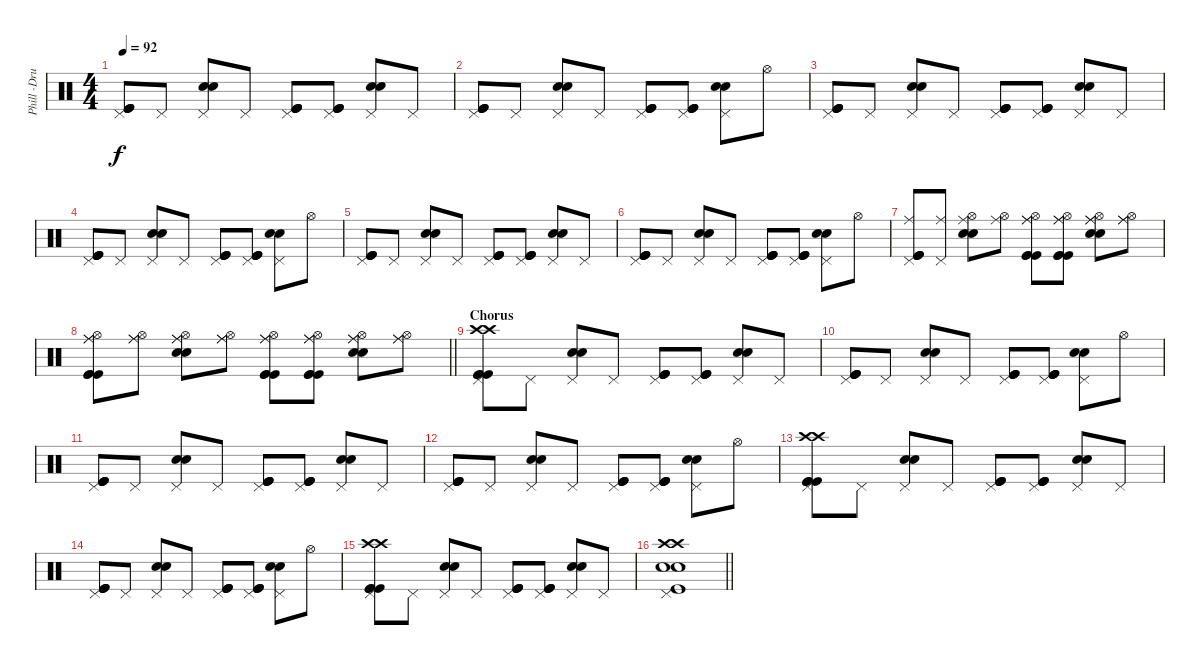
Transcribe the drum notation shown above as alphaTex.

\track ("Phill -Drums" "Phill -Dru") {instrument percussion}
\staff {score}
\articulation defaults
\ts (4 4)
\tempo 92
\clef neutral
\ks c
("Pedal Hi-Hat (hit)" "Kick (hit)" "Kick (hit)" "Kick (hit)").8{dy f} "Pedal Hi-Hat (hit)".8 ("Pedal Hi-Hat (hit)" "Snare (hit) 2" "Snare (hit) 2").8 "Pedal Hi-Hat (hit)".8 ("Pedal Hi-Hat (hit)" "Kick (hit)" "Kick (hit)" "Kick (hit)").8 ("Pedal Hi-Hat (hit)" "Kick (hit)" "Kick (hit)" "Kick (hit)").8 ("Pedal Hi-Hat (hit)" "Snare (hit) 2" "Snare (hit) 2").8 "Pedal Hi-Hat (hit)".8 |
("Pedal Hi-Hat (hit)" "Kick (hit)" "Kick (hit)" "Kick (hit)").8 "Pedal Hi-Hat (hit)".8 ("Pedal Hi-Hat (hit)" "Snare (hit) 2" "Snare (hit) 2").8 "Pedal Hi-Hat (hit)".8 ("Pedal Hi-Hat (hit)" "Kick (hit)" "Kick (hit)" "Kick (hit)").8 ("Pedal Hi-Hat (hit)" "Kick (hit)" "Kick (hit)" "Kick (hit)").8 ("Pedal Hi-Hat (hit)" "Snare (hit) 2" "Snare (hit) 2").8 "Hi-Hat (open)".8 |
("Pedal Hi-Hat (hit)" "Kick (hit)" "Kick (hit)" "Kick (hit)").8 "Pedal Hi-Hat (hit)".8 ("Pedal Hi-Hat (hit)" "Snare (hit) 2" "Snare (hit) 2").8 "Pedal Hi-Hat (hit)".8 ("Pedal Hi-Hat (hit)" "Kick (hit)" "Kick (hit)" "Kick (hit)").8 ("Pedal Hi-Hat (hit)" "Kick (hit)" "Kick (hit)" "Kick (hit)").8 ("Pedal Hi-Hat (hit)" "Snare (hit) 2" "Snare (hit) 2").8 "Pedal Hi-Hat (hit)".8 |
("Pedal Hi-Hat (hit)" "Kick (hit)" "Kick (hit)" "Kick (hit)").8 "Pedal Hi-Hat (hit)".8 ("Pedal Hi-Hat (hit)" "Snare (hit) 2" "Snare (hit) 2").8 "Pedal Hi-Hat (hit)".8 ("Pedal Hi-Hat (hit)" "Kick (hit)" "Kick (hit)" "Kick (hit)").8 ("Pedal Hi-Hat (hit)" "Kick (hit)" "Kick (hit)" "Kick (hit)").8 ("Pedal Hi-Hat (hit)" "Snare (hit) 2" "Snare (hit) 2").8 "Hi-Hat (open)".8 |
("Pedal Hi-Hat (hit)" "Kick (hit)" "Kick (hit)" "Kick (hit)").8 "Pedal Hi-Hat (hit)".8 ("Pedal Hi-Hat (hit)" "Snare (hit) 2" "Snare (hit) 2").8 "Pedal Hi-Hat (hit)".8 ("Pedal Hi-Hat (hit)" "Kick (hit)" "Kick (hit)" "Kick (hit)").8 ("Pedal Hi-Hat (hit)" "Kick (hit)" "Kick (hit)" "Kick (hit)").8 ("Pedal Hi-Hat (hit)" "Snare (hit) 2" "Snare (hit) 2").8 "Pedal Hi-Hat (hit)".8 |
("Pedal Hi-Hat (hit)" "Kick (hit)" "Kick (hit)" "Kick (hit)").8 "Pedal Hi-Hat (hit)".8 ("Pedal Hi-Hat (hit)" "Snare (hit) 2" "Snare (hit) 2").8 "Pedal Hi-Hat (hit)".8 ("Pedal Hi-Hat (hit)" "Kick (hit)" "Kick (hit)" "Kick (hit)").8 ("Pedal Hi-Hat (hit)" "Kick (hit)" "Kick (hit)" "Kick (hit)").8 ("Pedal Hi-Hat (hit)" "Snare (hit) 2" "Snare (hit) 2").8 "Hi-Hat (open)".8 |
("Pedal Hi-Hat (hit)" "Ride (middle)" "Kick (hit)" "Kick (hit)" "Kick (hit)").8 ("Pedal Hi-Hat (hit)" "Ride (middle)").8 ("Hi-Hat (open)" "Ride (middle)" "Snare (hit) 2" "Snare (hit) 2").8 ("Hi-Hat (open)" "Ride (middle)").8 ("Hi-Hat (open)" "Ride (middle)" "Ride (middle)" "Kick (hit)" "Kick (hit)" "Kick (hit)").8 ("Hi-Hat (open)" "Ride (middle)" "Ride (middle)" "Kick (hit)" "Kick (hit)" "Kick (hit)").8 ("Hi-Hat (open)" "Ride (middle)" "Ride (middle)" "Snare (hit) 2" "Snare (hit) 2").8 ("Hi-Hat (open)" "Ride (middle)" "Ride (middle)").8 |
\barLineRight lightlight
("Hi-Hat (open)" "Ride (middle)" "Ride (middle)" "Kick (hit)" "Kick (hit)" "Kick (hit)").8 ("Hi-Hat (open)" "Ride (middle)" "Ride (middle)").8 ("Hi-Hat (open)" "Ride (middle)" "Ride (middle)" "Snare (hit) 2" "Snare (hit) 2").8 ("Hi-Hat (open)" "Ride (middle)" "Ride (middle)").8 ("Hi-Hat (open)" "Ride (middle)" "Ride (middle)" "Kick (hit)" "Kick (hit)" "Kick (hit)").8 ("Hi-Hat (open)" "Ride (middle)" "Ride (middle)" "Kick (hit)" "Kick (hit)" "Kick (hit)").8 ("Hi-Hat (open)" "Ride (middle)" "Ride (middle)" "Snare (hit) 2" "Snare (hit) 2").8 ("Hi-Hat (open)" "Ride (middle)" "Ride (middle)").8 |
\section ("" "Chorus")
("Pedal Hi-Hat (hit)" "Crash high (hit)" "Crash high (hit)" "Kick (hit)" "Kick (hit)" "Kick (hit)").8 "Pedal Hi-Hat (hit)".8 ("Pedal Hi-Hat (hit)" "Snare (hit) 2" "Snare (hit) 2").8 "Pedal Hi-Hat (hit)".8 ("Pedal Hi-Hat (hit)" "Kick (hit)" "Kick (hit)" "Kick (hit)").8 ("Pedal Hi-Hat (hit)" "Kick (hit)" "Kick (hit)" "Kick (hit)").8 ("Pedal Hi-Hat (hit)" "Snare (hit) 2" "Snare (hit) 2").8 "Pedal Hi-Hat (hit)".8 |
("Pedal Hi-Hat (hit)" "Kick (hit)" "Kick (hit)" "Kick (hit)").8 "Pedal Hi-Hat (hit)".8 ("Pedal Hi-Hat (hit)" "Snare (hit) 2" "Snare (hit) 2").8 "Pedal Hi-Hat (hit)".8 ("Pedal Hi-Hat (hit)" "Kick (hit)" "Kick (hit)" "Kick (hit)").8 ("Pedal Hi-Hat (hit)" "Kick (hit)" "Kick (hit)" "Kick (hit)").8 ("Pedal Hi-Hat (hit)" "Snare (hit) 2" "Snare (hit) 2").8 "Hi-Hat (open)".8 |
("Pedal Hi-Hat (hit)" "Kick (hit)" "Kick (hit)" "Kick (hit)").8 "Pedal Hi-Hat (hit)".8 ("Pedal Hi-Hat (hit)" "Snare (hit) 2" "Snare (hit) 2").8 "Pedal Hi-Hat (hit)".8 ("Pedal Hi-Hat (hit)" "Kick (hit)" "Kick (hit)" "Kick (hit)").8 ("Pedal Hi-Hat (hit)" "Kick (hit)" "Kick (hit)" "Kick (hit)").8 ("Pedal Hi-Hat (hit)" "Snare (hit) 2" "Snare (hit) 2").8 "Pedal Hi-Hat (hit)".8 |
("Pedal Hi-Hat (hit)" "Kick (hit)" "Kick (hit)" "Kick (hit)").8 "Pedal Hi-Hat (hit)".8 ("Pedal Hi-Hat (hit)" "Snare (hit) 2" "Snare (hit) 2").8 "Pedal Hi-Hat (hit)".8 ("Pedal Hi-Hat (hit)" "Kick (hit)" "Kick (hit)" "Kick (hit)").8 ("Pedal Hi-Hat (hit)" "Kick (hit)" "Kick (hit)" "Kick (hit)").8 ("Pedal Hi-Hat (hit)" "Snare (hit) 2" "Snare (hit) 2").8 "Hi-Hat (open)".8 |
("Pedal Hi-Hat (hit)" "Crash high (hit)" "Crash high (hit)" "Kick (hit)" "Kick (hit)" "Kick (hit)").8 "Pedal Hi-Hat (hit)".8 ("Pedal Hi-Hat (hit)" "Snare (hit) 2" "Snare (hit) 2").8 "Pedal Hi-Hat (hit)".8 ("Pedal Hi-Hat (hit)" "Kick (hit)" "Kick (hit)" "Kick (hit)").8 ("Pedal Hi-Hat (hit)" "Kick (hit)" "Kick (hit)" "Kick (hit)").8 ("Pedal Hi-Hat (hit)" "Snare (hit) 2" "Snare (hit) 2").8 "Pedal Hi-Hat (hit)".8 |
("Pedal Hi-Hat (hit)" "Kick (hit)" "Kick (hit)" "Kick (hit)").8 "Pedal Hi-Hat (hit)".8 ("Pedal Hi-Hat (hit)" "Snare (hit) 2" "Snare (hit) 2").8 "Pedal Hi-Hat (hit)".8 ("Pedal Hi-Hat (hit)" "Kick (hit)" "Kick (hit)" "Kick (hit)").8 ("Pedal Hi-Hat (hit)" "Kick (hit)" "Kick (hit)" "Kick (hit)").8 ("Pedal Hi-Hat (hit)" "Snare (hit) 2" "Snare (hit) 2").8 "Hi-Hat (open)".8 |
("Pedal Hi-Hat (hit)" "Crash high (hit)" "Crash high (hit)" "Kick (hit)" "Kick (hit)" "Kick (hit)").8 "Pedal Hi-Hat (hit)".8 ("Pedal Hi-Hat (hit)" "Snare (hit) 2" "Snare (hit) 2").8 "Pedal Hi-Hat (hit)".8 ("Pedal Hi-Hat (hit)" "Kick (hit)" "Kick (hit)" "Kick (hit)").8 ("Pedal Hi-Hat (hit)" "Kick (hit)" "Kick (hit)" "Kick (hit)").8 ("Pedal Hi-Hat (hit)" "Snare (hit) 2" "Snare (hit) 2").8 "Pedal Hi-Hat (hit)".8 |
\barLineRight lightlight
("Pedal Hi-Hat (hit)" "Crash high (hit)" "Crash high (hit)" "Snare (hit) 2" "Snare (hit) 2" "Kick (hit)").1
